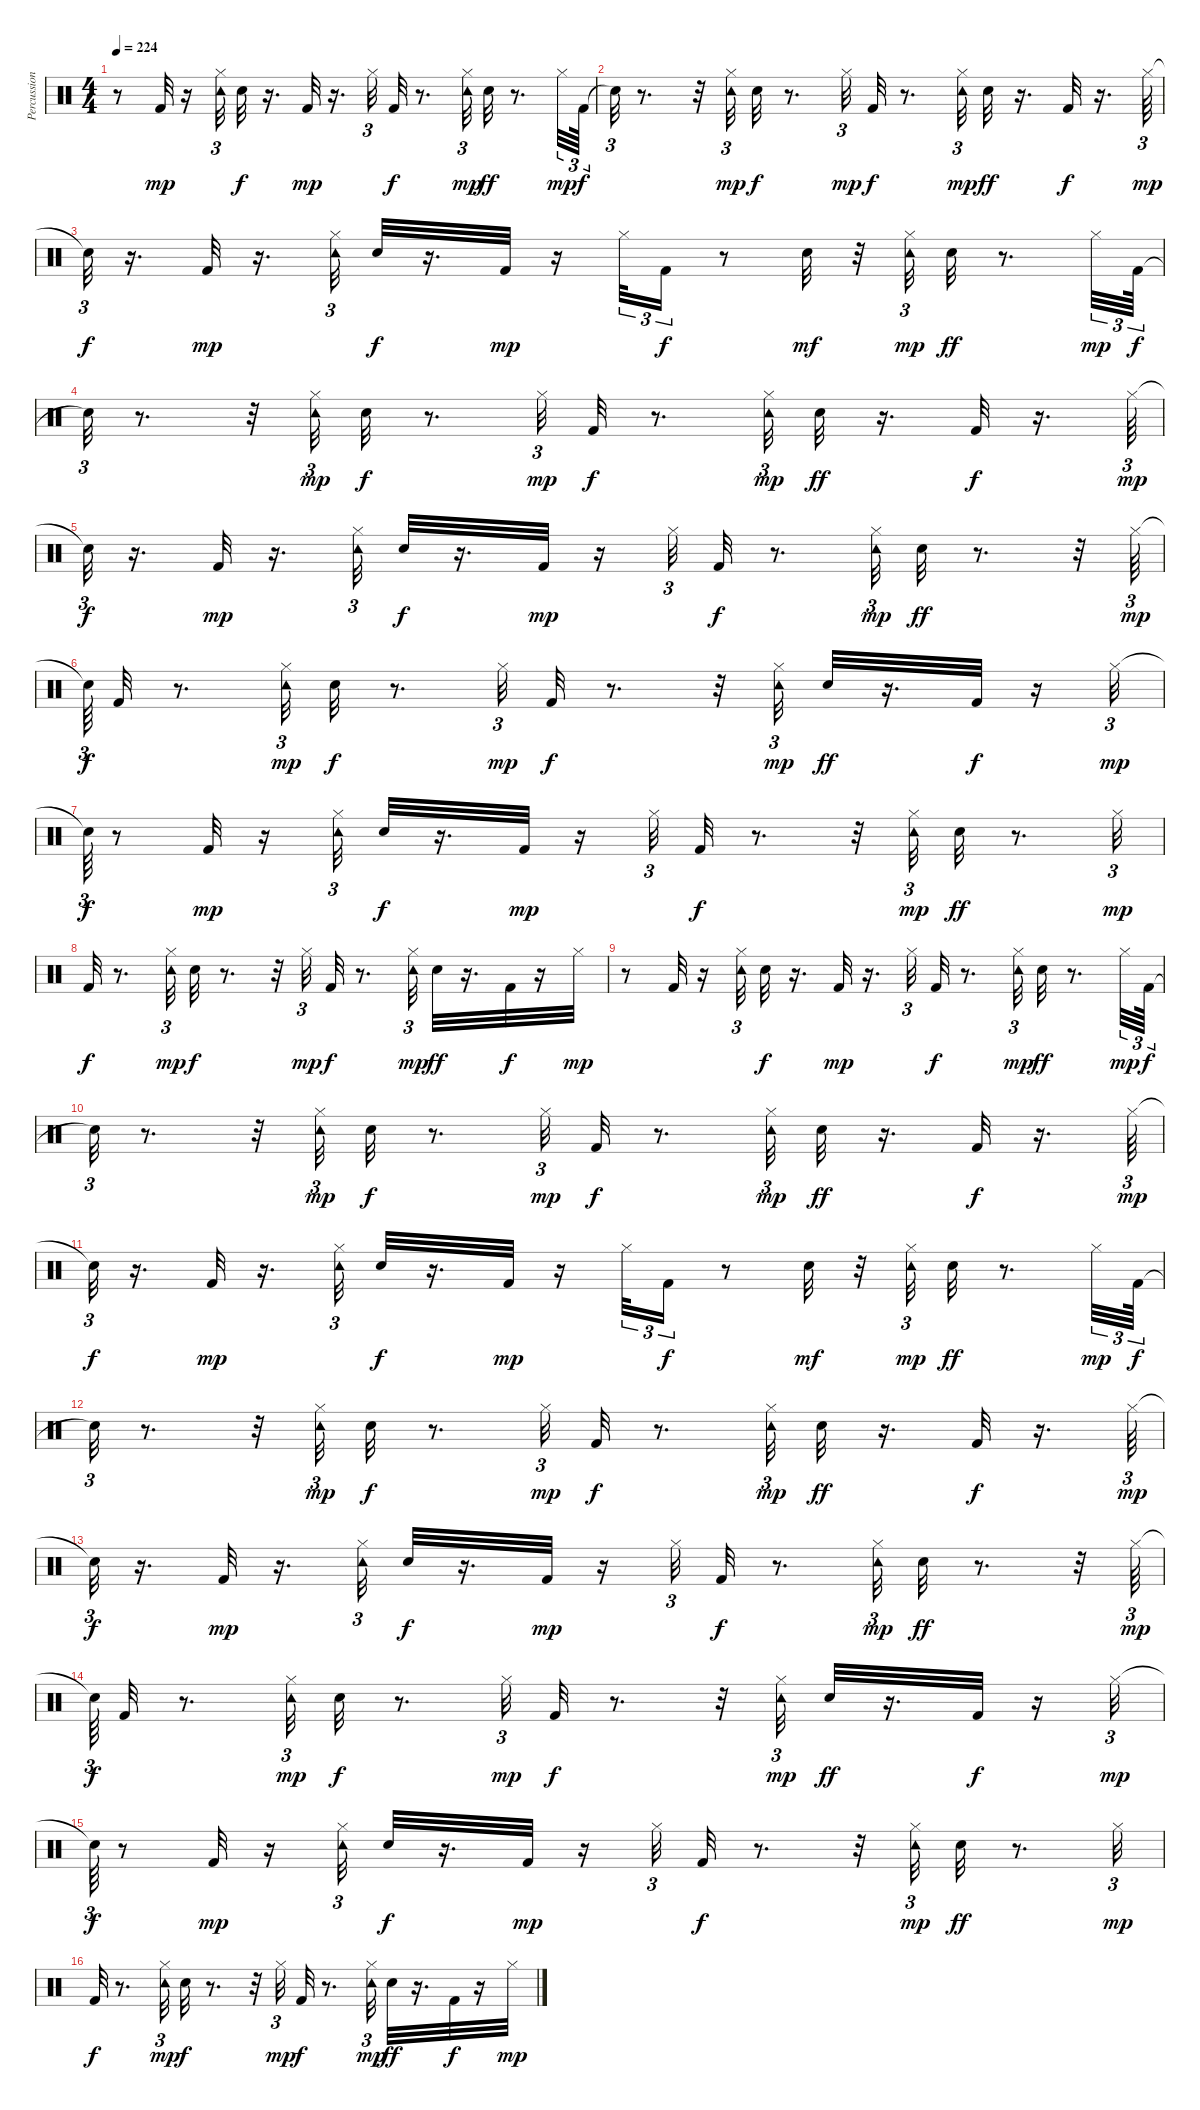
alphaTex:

\track ("Percussion" "Percussion") {instrument percussion}
\staff {score}
\articulation defaults
\ts (4 4)
\tempo 224
\clef neutral
\ks c
r.8{dy mp} "Kick (hit) 2".32 r.16 ("Tambourine (hit)" "Hi-Hat (closed)").32{tu (3 2)} "Snare (hit) 2".32{dy f} r.16{d} "Kick (hit) 2".32{dy mp} r.16{d} "Hi-Hat (closed)".32{tu (3 2)} "Kick (hit) 2".32{dy f} r.8{d} ("Tambourine (hit)" "Hi-Hat (closed)").32{tu (3 2) dy mp} "Snare (hit) 2".32{dy ff} r.8{d} "Hi-Hat (closed)".32{tu (3 2) dy mp} "Kick (hit) 2".64{tu (3 2) dy f} |
"Snare (hit)"{t}.32{tu (3 2)} r.8{d} r.32 ("Tambourine (hit)" "Hi-Hat (closed)").32{tu (3 2) dy mp} "Snare (hit) 2".32{dy f} r.8{d} "Hi-Hat (closed)".32{tu (3 2) dy mp} "Kick (hit) 2".32{dy f} r.8{d} ("Tambourine (hit)" "Hi-Hat (closed)").32{tu (3 2) dy mp} "Snare (hit) 2".32{dy ff} r.16{d} "Kick (hit) 2".32{dy f} r.16{d} "Hi-Hat (closed)".64{tu (3 2) dy mp} |
"Snare (hit)"{t}.32{tu (3 2) dy f} r.16{d} "Kick (hit) 2".32{dy mp} r.16{d} ("Tambourine (hit)" "Hi-Hat (closed)").32{tu (3 2)} "Snare (hit) 2".32{dy f} r.16{d} "Kick (hit) 2".32{dy mp} r.16 "Hi-Hat (closed)".32{tu (3 2)} "Kick (hit) 2".16{tu (3 2) dy f} r.8 "Snare (hit) 2".32{dy mf} r.32 ("Tambourine (hit)" "Hi-Hat (closed)").32{tu (3 2) dy mp} "Snare (hit) 2".32{dy ff} r.8{d} "Hi-Hat (closed)".32{tu (3 2) dy mp} "Kick (hit) 2".64{tu (3 2) dy f} |
"Snare (hit)"{t}.32{tu (3 2)} r.8{d} r.32 ("Tambourine (hit)" "Hi-Hat (closed)").32{tu (3 2) dy mp} "Snare (hit) 2".32{dy f} r.8{d} "Hi-Hat (closed)".32{tu (3 2) dy mp} "Kick (hit) 2".32{dy f} r.8{d} ("Tambourine (hit)" "Hi-Hat (closed)").32{tu (3 2) dy mp} "Snare (hit) 2".32{dy ff} r.16{d} "Kick (hit) 2".32{dy f} r.16{d} "Hi-Hat (closed)".64{tu (3 2) dy mp} |
"Snare (hit)"{t}.32{tu (3 2) dy f} r.16{d} "Kick (hit) 2".32{dy mp} r.16{d} ("Tambourine (hit)" "Hi-Hat (closed)").32{tu (3 2)} "Snare (hit) 2".32{dy f} r.16{d} "Kick (hit) 2".32{dy mp} r.16 "Hi-Hat (closed)".32{tu (3 2)} "Kick (hit) 2".32{dy f} r.8{d} ("Tambourine (hit)" "Hi-Hat (closed)").32{tu (3 2) dy mp} "Snare (hit) 2".32{dy ff} r.8{d} r.32 "Hi-Hat (closed)".64{tu (3 2) dy mp} |
"Snare (hit)"{t}.64{tu (3 2) dy f} "Kick (hit) 2".32 r.8{d} ("Tambourine (hit)" "Hi-Hat (closed)").32{tu (3 2) dy mp} "Snare (hit) 2".32{dy f} r.8{d} "Hi-Hat (closed)".32{tu (3 2) dy mp} "Kick (hit) 2".32{dy f} r.8{d} r.32 ("Tambourine (hit)" "Hi-Hat (closed)").32{tu (3 2) dy mp} "Snare (hit) 2".32{dy ff} r.16{d} "Kick (hit) 2".32{dy f} r.16 "Hi-Hat (closed)".32{tu (3 2) dy mp} |
"Snare (hit)"{t}.64{tu (3 2) dy f} r.8 "Kick (hit) 2".32{dy mp} r.16 ("Tambourine (hit)" "Hi-Hat (closed)").32{tu (3 2)} "Snare (hit) 2".32{dy f} r.16{d} "Kick (hit) 2".32{dy mp} r.16 "Hi-Hat (closed)".32{tu (3 2)} "Kick (hit) 2".32{dy f} r.8{d} r.32 ("Tambourine (hit)" "Hi-Hat (closed)").32{tu (3 2) dy mp} "Snare (hit) 2".32{dy ff} r.8{d} "Hi-Hat (closed)".32{tu (3 2) dy mp} |
"Kick (hit) 2".32{dy f} r.8{d} ("Tambourine (hit)" "Hi-Hat (closed)").32{tu (3 2) dy mp} "Snare (hit) 2".32{dy f} r.8{d} r.32 "Hi-Hat (closed)".32{tu (3 2) dy mp} "Kick (hit) 2".32{dy f} r.8{d} ("Tambourine (hit)" "Hi-Hat (closed)").32{tu (3 2) dy mp} "Snare (hit) 2".32{dy ff} r.16{d} "Kick (hit) 2".32{dy f} r.16 "Hi-Hat (closed)".32{dy mp} |
r.8 "Kick (hit) 2".32 r.16 ("Tambourine (hit)" "Hi-Hat (closed)").32{tu (3 2)} "Snare (hit) 2".32{dy f} r.16{d} "Kick (hit) 2".32{dy mp} r.16{d} "Hi-Hat (closed)".32{tu (3 2)} "Kick (hit) 2".32{dy f} r.8{d} ("Tambourine (hit)" "Hi-Hat (closed)").32{tu (3 2) dy mp} "Snare (hit) 2".32{dy ff} r.8{d} "Hi-Hat (closed)".32{tu (3 2) dy mp} "Kick (hit) 2".64{tu (3 2) dy f} |
"Snare (hit)"{t}.32{tu (3 2)} r.8{d} r.32 ("Tambourine (hit)" "Hi-Hat (closed)").32{tu (3 2) dy mp} "Snare (hit) 2".32{dy f} r.8{d} "Hi-Hat (closed)".32{tu (3 2) dy mp} "Kick (hit) 2".32{dy f} r.8{d} ("Tambourine (hit)" "Hi-Hat (closed)").32{tu (3 2) dy mp} "Snare (hit) 2".32{dy ff} r.16{d} "Kick (hit) 2".32{dy f} r.16{d} "Hi-Hat (closed)".64{tu (3 2) dy mp} |
"Snare (hit)"{t}.32{tu (3 2) dy f} r.16{d} "Kick (hit) 2".32{dy mp} r.16{d} ("Tambourine (hit)" "Hi-Hat (closed)").32{tu (3 2)} "Snare (hit) 2".32{dy f} r.16{d} "Kick (hit) 2".32{dy mp} r.16 "Hi-Hat (closed)".32{tu (3 2)} "Kick (hit) 2".16{tu (3 2) dy f} r.8 "Snare (hit) 2".32{dy mf} r.32 ("Tambourine (hit)" "Hi-Hat (closed)").32{tu (3 2) dy mp} "Snare (hit) 2".32{dy ff} r.8{d} "Hi-Hat (closed)".32{tu (3 2) dy mp} "Kick (hit) 2".64{tu (3 2) dy f} |
"Snare (hit)"{t}.32{tu (3 2)} r.8{d} r.32 ("Tambourine (hit)" "Hi-Hat (closed)").32{tu (3 2) dy mp} "Snare (hit) 2".32{dy f} r.8{d} "Hi-Hat (closed)".32{tu (3 2) dy mp} "Kick (hit) 2".32{dy f} r.8{d} ("Tambourine (hit)" "Hi-Hat (closed)").32{tu (3 2) dy mp} "Snare (hit) 2".32{dy ff} r.16{d} "Kick (hit) 2".32{dy f} r.16{d} "Hi-Hat (closed)".64{tu (3 2) dy mp} |
"Snare (hit)"{t}.32{tu (3 2) dy f} r.16{d} "Kick (hit) 2".32{dy mp} r.16{d} ("Tambourine (hit)" "Hi-Hat (closed)").32{tu (3 2)} "Snare (hit) 2".32{dy f} r.16{d} "Kick (hit) 2".32{dy mp} r.16 "Hi-Hat (closed)".32{tu (3 2)} "Kick (hit) 2".32{dy f} r.8{d} ("Tambourine (hit)" "Hi-Hat (closed)").32{tu (3 2) dy mp} "Snare (hit) 2".32{dy ff} r.8{d} r.32 "Hi-Hat (closed)".64{tu (3 2) dy mp} |
"Snare (hit)"{t}.64{tu (3 2) dy f} "Kick (hit) 2".32 r.8{d} ("Tambourine (hit)" "Hi-Hat (closed)").32{tu (3 2) dy mp} "Snare (hit) 2".32{dy f} r.8{d} "Hi-Hat (closed)".32{tu (3 2) dy mp} "Kick (hit) 2".32{dy f} r.8{d} r.32 ("Tambourine (hit)" "Hi-Hat (closed)").32{tu (3 2) dy mp} "Snare (hit) 2".32{dy ff} r.16{d} "Kick (hit) 2".32{dy f} r.16 "Hi-Hat (closed)".32{tu (3 2) dy mp} |
"Snare (hit)"{t}.64{tu (3 2) dy f} r.8 "Kick (hit) 2".32{dy mp} r.16 ("Tambourine (hit)" "Hi-Hat (closed)").32{tu (3 2)} "Snare (hit) 2".32{dy f} r.16{d} "Kick (hit) 2".32{dy mp} r.16 "Hi-Hat (closed)".32{tu (3 2)} "Kick (hit) 2".32{dy f} r.8{d} r.32 ("Tambourine (hit)" "Hi-Hat (closed)").32{tu (3 2) dy mp} "Snare (hit) 2".32{dy ff} r.8{d} "Hi-Hat (closed)".32{tu (3 2) dy mp} |
"Kick (hit) 2".32{dy f} r.8{d} ("Tambourine (hit)" "Hi-Hat (closed)").32{tu (3 2) dy mp} "Snare (hit) 2".32{dy f} r.8{d} r.32 "Hi-Hat (closed)".32{tu (3 2) dy mp} "Kick (hit) 2".32{dy f} r.8{d} ("Tambourine (hit)" "Hi-Hat (closed)").32{tu (3 2) dy mp} "Snare (hit) 2".32{dy ff} r.16{d} "Kick (hit) 2".32{dy f} r.16 "Hi-Hat (closed)".32{dy mp}
